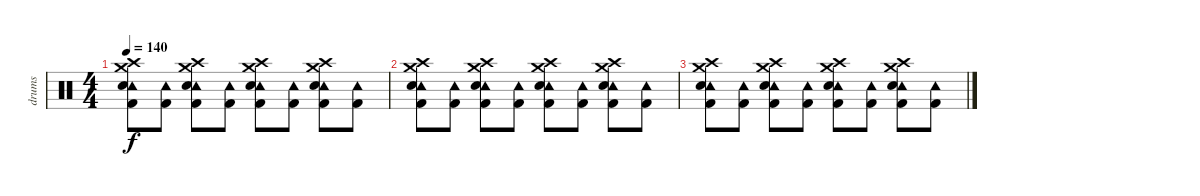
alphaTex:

\track ("drums" "drums") {instrument percussion}
\staff {score}
\articulation defaults
\ts (4 4)
\tempo 140
\clef neutral
\ks c
("Crash high (hit)" "Tambourine (hit)" "Crash medium (hit)" "Snare (hit) 2" "Kick (hit) 2").8{dy f} ("Tambourine (hit)" "Kick (hit) 2").8 ("Crash high (hit)" "Tambourine (hit)" "Crash medium (hit)" "Snare (hit) 2" "Kick (hit) 2").8 ("Tambourine (hit)" "Kick (hit) 2").8 ("Crash high (hit)" "Tambourine (hit)" "Crash medium (hit)" "Snare (hit) 2" "Kick (hit) 2").8 ("Tambourine (hit)" "Kick (hit) 2").8 ("Crash high (hit)" "Tambourine (hit)" "Crash medium (hit)" "Snare (hit) 2" "Kick (hit) 2").8 ("Tambourine (hit)" "Kick (hit) 2").8 |
("Crash high (hit)" "Tambourine (hit)" "Crash medium (hit)" "Snare (hit) 2" "Kick (hit) 2").8 ("Tambourine (hit)" "Kick (hit) 2").8 ("Crash high (hit)" "Tambourine (hit)" "Crash medium (hit)" "Snare (hit) 2" "Kick (hit) 2").8 ("Tambourine (hit)" "Kick (hit) 2").8 ("Crash high (hit)" "Tambourine (hit)" "Crash medium (hit)" "Snare (hit) 2" "Kick (hit) 2").8 ("Tambourine (hit)" "Kick (hit) 2").8 ("Crash high (hit)" "Tambourine (hit)" "Crash medium (hit)" "Snare (hit) 2" "Kick (hit) 2").8 ("Tambourine (hit)" "Kick (hit) 2").8 |
("Crash high (hit)" "Tambourine (hit)" "Crash medium (hit)" "Snare (hit) 2" "Kick (hit) 2").8 ("Tambourine (hit)" "Kick (hit) 2").8 ("Crash high (hit)" "Tambourine (hit)" "Crash medium (hit)" "Snare (hit) 2" "Kick (hit) 2").8 ("Tambourine (hit)" "Kick (hit) 2").8 ("Crash high (hit)" "Tambourine (hit)" "Crash medium (hit)" "Snare (hit) 2" "Kick (hit) 2").8 ("Tambourine (hit)" "Kick (hit) 2").8 ("Crash high (hit)" "Tambourine (hit)" "Crash medium (hit)" "Snare (hit) 2" "Kick (hit) 2").8 ("Tambourine (hit)" "Kick (hit) 2").8
